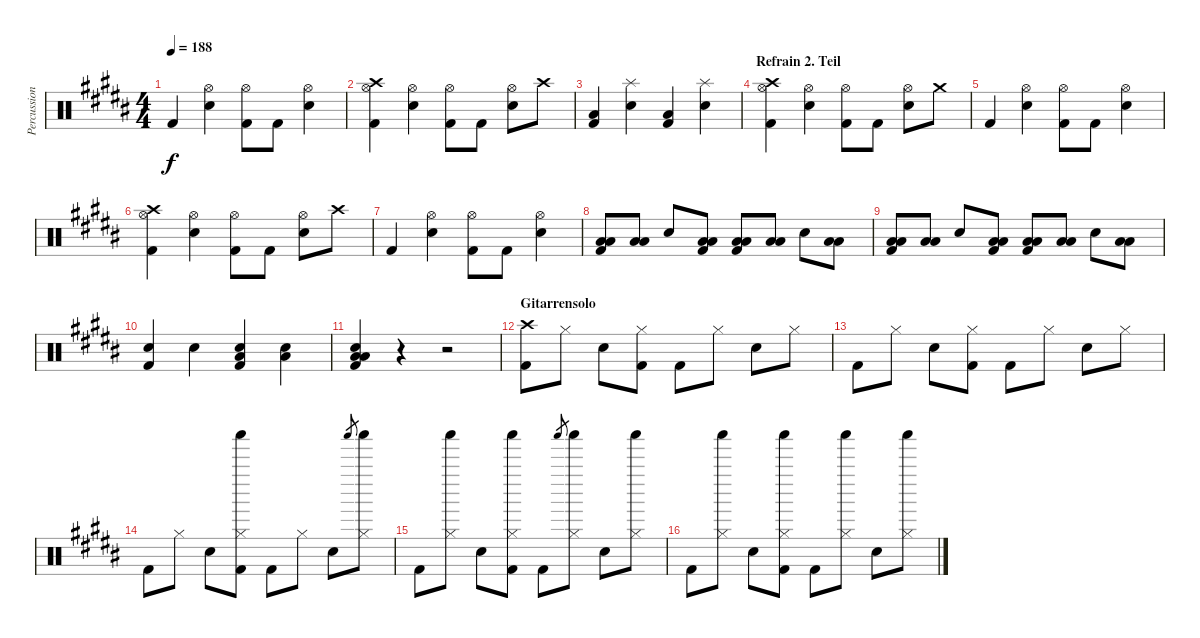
\track ("Percussion" "Percussion") {instrument percussion}
\staff {score}
\articulation defaults
\ts (4 4)
\tempo 188
\clef neutral
\ks b "Kick (hit) 2".4{dy f}
("Hi-Hat (open)" "Electric Snare (hit)").4 ("Hi-Hat (open)" "Kick (hit) 2").8 "Kick (hit) 2".8 ("Hi-Hat (open)" "Electric Snare (hit)").4 |
("Crash high (hit)" "Hi-Hat (open)" "Kick (hit) 2").4 ("Hi-Hat (open)" "Electric Snare (hit)").4 ("Hi-Hat (open)" "Kick (hit) 2").8 "Kick (hit) 2".8 ("Hi-Hat (open)" "Electric Snare (hit)").8 "Crash high (hit)".8 |
("Low Floor Tom (hit)" "Kick (hit) 2").4 ("Splash (hit)" "Electric Snare (hit)").4 ("Low Floor Tom (hit)" "Kick (hit) 2").4 ("Splash (hit)" "Electric Snare (hit)").4 |
\section ("" "Refrain 2. Teil")
("Crash high (hit)" "Hi-Hat (open)" "Kick (hit) 2").4 ("Hi-Hat (open)" "Electric Snare (hit)").4 ("Hi-Hat (open)" "Kick (hit) 2").8 "Kick (hit) 2".8 ("Hi-Hat (open)" "Electric Snare (hit)").8 "Crash medium (hit)".8 |
"Kick (hit) 2".4 ("Hi-Hat (open)" "Electric Snare (hit)").4 ("Hi-Hat (open)" "Kick (hit) 2").8 "Kick (hit) 2".8 ("Hi-Hat (open)" "Electric Snare (hit)").4 |
("Crash high (hit)" "Hi-Hat (open)" "Kick (hit) 2").4 ("Hi-Hat (open)" "Electric Snare (hit)").4 ("Hi-Hat (open)" "Kick (hit) 2").8 "Kick (hit) 2".8 ("Hi-Hat (open)" "Electric Snare (hit)").8 "Crash high (hit)".8 |
"Kick (hit) 2".4 ("Hi-Hat (open)" "Electric Snare (hit)").4 ("Hi-Hat (open)" "Kick (hit) 2").8 "Kick (hit) 2".8 ("Hi-Hat (open)" "Electric Snare (hit)").4 |
("Low Tom (hit)" "Low Floor Tom (hit)" "Kick (hit) 2").8 ("Low Tom (hit)" "Low Floor Tom (hit)").8 "Electric Snare (hit)".8 ("Low Tom (hit)" "Low Floor Tom (hit)" "Kick (hit) 2").8 ("Low Tom (hit)" "Low Floor Tom (hit)" "Kick (hit) 2").8 ("Low Tom (hit)" "Low Floor Tom (hit)").8 "Electric Snare (hit)".8 ("Low Tom (hit)" "Low Floor Tom (hit)").8 |
("Low Tom (hit)" "Low Floor Tom (hit)" "Kick (hit) 2").8 ("Low Tom (hit)" "Low Floor Tom (hit)").8 "Electric Snare (hit)".8 ("Low Tom (hit)" "Low Floor Tom (hit)" "Kick (hit) 2").8 ("Low Tom (hit)" "Low Floor Tom (hit)" "Kick (hit) 2").8 ("Low Tom (hit)" "Low Floor Tom (hit)").8 "Electric Snare (hit)".8 ("Low Tom (hit)" "Low Floor Tom (hit)").8 |
("Electric Snare (hit)" "Kick (hit) 2").4 "Electric Snare (hit)".4 ("Low Floor Tom (hit)" "Electric Snare (hit)" "Kick (hit) 2").4 ("Low Floor Tom (hit)" "Electric Snare (hit)").4 |
("Low Tom (hit)" "Low Floor Tom (hit)" "Electric Snare (hit)" "Kick (hit) 2").4 r.4 r.2 |
\section ("" "Gitarrensolo")
("Crash high (hit)" "Kick (hit) 2").8 "Hi-Hat (closed)".8 "Electric Snare (hit)".8 ("Hi-Hat (closed)" "Kick (hit) 2").8 "Kick (hit) 2".8 "Hi-Hat (closed)".8 "Electric Snare (hit)".8 "Hi-Hat (closed)".8 |
"Kick (hit) 2".8 "Hi-Hat (closed)".8 "Electric Snare (hit)".8 ("Hi-Hat (closed)" "Kick (hit) 2").8 "Kick (hit) 2".8 "Hi-Hat (closed)".8 "Electric Snare (hit)".8 "Hi-Hat (closed)".8 |
"Kick (hit) 2".8 "Hi-Hat (closed)".8 "Electric Snare (hit)".8 ("Shaker (hit)" "Hi-Hat (closed)" "Kick (hit) 2").8 "Kick (hit) 2".8 "Hi-Hat (closed)".8 "Electric Snare (hit)".8 "Shaker (hit)".8{gr} ("Shaker (hit)" "Hi-Hat (closed)").8 |
"Kick (hit) 2".8 ("Shaker (hit)" "Hi-Hat (closed)").8 "Electric Snare (hit)".8 ("Shaker (hit)" "Hi-Hat (closed)" "Kick (hit) 2").8 "Kick (hit) 2".8 "Shaker (hit)".8{gr} ("Shaker (hit)" "Hi-Hat (closed)").8 "Electric Snare (hit)".8 ("Shaker (hit)" "Hi-Hat (closed)").8 |
"Kick (hit) 2".8 ("Shaker (hit)" "Hi-Hat (closed)").8 "Electric Snare (hit)".8 ("Shaker (hit)" "Hi-Hat (closed)" "Kick (hit) 2").8 "Kick (hit) 2".8 ("Shaker (hit)" "Hi-Hat (closed)").8 "Electric Snare (hit)".8 ("Shaker (hit)" "Hi-Hat (closed)").8
